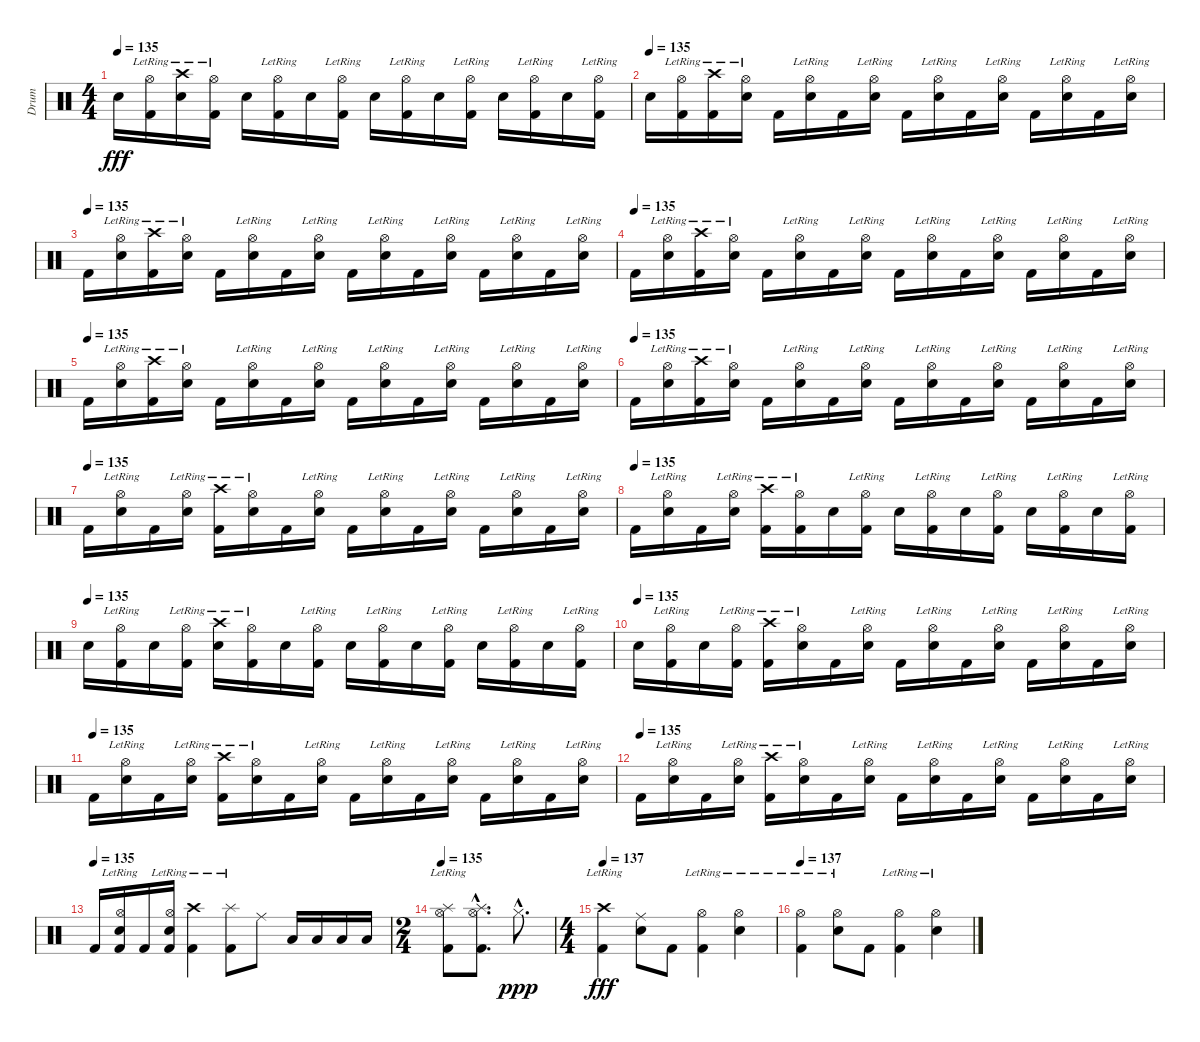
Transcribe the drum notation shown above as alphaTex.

\track ("Drum" "Drum") {instrument percussion}
\staff {score}
\articulation defaults
\ts (4 4)
\tempo 135
\clef neutral
\ks c "Electric Snare (hit)".16{dy fff}
("Hi-Hat (open)"{lr} "Kick (hit) 2").16 ("Crash high (hit)"{lr} "Electric Snare (hit)").16 ("Hi-Hat (open)"{lr} "Kick (hit) 2").16 "Electric Snare (hit)".16 ("Hi-Hat (open)"{lr} "Kick (hit) 2").16 "Electric Snare (hit)".16 ("Hi-Hat (open)"{lr} "Kick (hit) 2").16 "Electric Snare (hit)".16 ("Hi-Hat (open)"{lr} "Kick (hit) 2").16 "Electric Snare (hit)".16 ("Hi-Hat (open)"{lr} "Kick (hit) 2").16 "Electric Snare (hit)".16 ("Hi-Hat (open)"{lr} "Kick (hit) 2").16 "Electric Snare (hit)".16 ("Hi-Hat (open)"{lr} "Kick (hit) 2").16 |
\tempo (135)
"Electric Snare (hit)".16 ("Hi-Hat (open)"{lr} "Kick (hit) 2").16 ("Crash high (hit)"{lr} "Kick (hit) 2").16 ("Hi-Hat (open)"{lr} "Electric Snare (hit)").16 "Kick (hit) 2".16 ("Hi-Hat (open)"{lr} "Electric Snare (hit)").16 "Kick (hit) 2".16 ("Hi-Hat (open)"{lr} "Electric Snare (hit)").16 "Kick (hit) 2".16 ("Hi-Hat (open)"{lr} "Electric Snare (hit)").16 "Kick (hit) 2".16 ("Hi-Hat (open)"{lr} "Electric Snare (hit)").16 "Kick (hit) 2".16 ("Hi-Hat (open)"{lr} "Electric Snare (hit)").16 "Kick (hit) 2".16 ("Hi-Hat (open)"{lr} "Electric Snare (hit)").16 |
\tempo (135)
"Kick (hit) 2".16 ("Hi-Hat (open)"{lr} "Electric Snare (hit)").16 ("Crash high (hit)"{lr} "Kick (hit) 2").16 ("Hi-Hat (open)"{lr} "Electric Snare (hit)").16 "Kick (hit) 2".16 ("Hi-Hat (open)"{lr} "Electric Snare (hit)").16 "Kick (hit) 2".16 ("Hi-Hat (open)"{lr} "Electric Snare (hit)").16 "Kick (hit) 2".16 ("Hi-Hat (open)"{lr} "Electric Snare (hit)").16 "Kick (hit) 2".16 ("Hi-Hat (open)"{lr} "Electric Snare (hit)").16 "Kick (hit) 2".16 ("Hi-Hat (open)"{lr} "Electric Snare (hit)").16 "Kick (hit) 2".16 ("Hi-Hat (open)"{lr} "Electric Snare (hit)").16 |
\tempo (135)
"Kick (hit) 2".16 ("Hi-Hat (open)"{lr} "Electric Snare (hit)").16 ("Crash high (hit)"{lr} "Kick (hit) 2").16 ("Hi-Hat (open)"{lr} "Electric Snare (hit)").16 "Kick (hit) 2".16 ("Hi-Hat (open)"{lr} "Electric Snare (hit)").16 "Kick (hit) 2".16 ("Hi-Hat (open)"{lr} "Electric Snare (hit)").16 "Kick (hit) 2".16 ("Hi-Hat (open)"{lr} "Electric Snare (hit)").16 "Kick (hit) 2".16 ("Hi-Hat (open)"{lr} "Electric Snare (hit)").16 "Kick (hit) 2".16 ("Hi-Hat (open)"{lr} "Electric Snare (hit)").16 "Kick (hit) 2".16 ("Hi-Hat (open)"{lr} "Electric Snare (hit)").16 |
\tempo (135)
"Kick (hit) 2".16 ("Hi-Hat (open)"{lr} "Electric Snare (hit)").16 ("Crash high (hit)"{lr} "Kick (hit) 2").16 ("Hi-Hat (open)"{lr} "Electric Snare (hit)").16 "Kick (hit) 2".16 ("Hi-Hat (open)"{lr} "Electric Snare (hit)").16 "Kick (hit) 2".16 ("Hi-Hat (open)"{lr} "Electric Snare (hit)").16 "Kick (hit) 2".16 ("Hi-Hat (open)"{lr} "Electric Snare (hit)").16 "Kick (hit) 2".16 ("Hi-Hat (open)"{lr} "Electric Snare (hit)").16 "Kick (hit) 2".16 ("Hi-Hat (open)"{lr} "Electric Snare (hit)").16 "Kick (hit) 2".16 ("Hi-Hat (open)"{lr} "Electric Snare (hit)").16 |
\tempo (135)
"Kick (hit) 2".16 ("Hi-Hat (open)"{lr} "Electric Snare (hit)").16 ("Crash high (hit)"{lr} "Kick (hit) 2").16 ("Hi-Hat (open)"{lr} "Electric Snare (hit)").16 "Kick (hit) 2".16 ("Hi-Hat (open)"{lr} "Electric Snare (hit)").16 "Kick (hit) 2".16 ("Hi-Hat (open)"{lr} "Electric Snare (hit)").16 "Kick (hit) 2".16 ("Hi-Hat (open)"{lr} "Electric Snare (hit)").16 "Kick (hit) 2".16 ("Hi-Hat (open)"{lr} "Electric Snare (hit)").16 "Kick (hit) 2".16 ("Hi-Hat (open)"{lr} "Electric Snare (hit)").16 "Kick (hit) 2".16 ("Hi-Hat (open)"{lr} "Electric Snare (hit)").16 |
\tempo (135)
"Kick (hit) 2".16 ("Hi-Hat (open)"{lr} "Electric Snare (hit)").16 "Kick (hit) 2".16 ("Hi-Hat (open)"{lr} "Electric Snare (hit)").16 ("Crash high (hit)"{lr} "Kick (hit) 2").16 ("Hi-Hat (open)"{lr} "Electric Snare (hit)").16 "Kick (hit) 2".16 ("Hi-Hat (open)"{lr} "Electric Snare (hit)").16 "Kick (hit) 2".16 ("Hi-Hat (open)"{lr} "Electric Snare (hit)").16 "Kick (hit) 2".16 ("Hi-Hat (open)"{lr} "Electric Snare (hit)").16 "Kick (hit) 2".16 ("Hi-Hat (open)"{lr} "Electric Snare (hit)").16 "Kick (hit) 2".16 ("Hi-Hat (open)"{lr} "Electric Snare (hit)").16 |
\tempo (135)
"Kick (hit) 2".16 ("Hi-Hat (open)"{lr} "Electric Snare (hit)").16 "Kick (hit) 2".16 ("Hi-Hat (open)"{lr} "Electric Snare (hit)").16 ("Crash high (hit)"{lr} "Kick (hit) 2").16 ("Hi-Hat (open)"{lr} "Kick (hit) 2").16 "Electric Snare (hit)".16 ("Hi-Hat (open)"{lr} "Kick (hit) 2").16 "Electric Snare (hit)".16 ("Hi-Hat (open)"{lr} "Kick (hit) 2").16 "Electric Snare (hit)".16 ("Hi-Hat (open)"{lr} "Kick (hit) 2").16 "Electric Snare (hit)".16 ("Hi-Hat (open)"{lr} "Kick (hit) 2").16 "Electric Snare (hit)".16 ("Hi-Hat (open)"{lr} "Kick (hit) 2").16 |
\tempo (135)
"Electric Snare (hit)".16 ("Hi-Hat (open)"{lr} "Kick (hit) 2").16 "Electric Snare (hit)".16 ("Hi-Hat (open)"{lr} "Kick (hit) 2").16 ("Crash high (hit)"{lr} "Electric Snare (hit)").16 ("Hi-Hat (open)"{lr} "Kick (hit) 2").16 "Electric Snare (hit)".16 ("Hi-Hat (open)"{lr} "Kick (hit) 2").16 "Electric Snare (hit)".16 ("Hi-Hat (open)"{lr} "Kick (hit) 2").16 "Electric Snare (hit)".16 ("Hi-Hat (open)"{lr} "Kick (hit) 2").16 "Electric Snare (hit)".16 ("Hi-Hat (open)"{lr} "Kick (hit) 2").16 "Electric Snare (hit)".16 ("Hi-Hat (open)"{lr} "Kick (hit) 2").16 |
\tempo (135)
"Electric Snare (hit)".16 ("Hi-Hat (open)"{lr} "Kick (hit) 2").16 "Electric Snare (hit)".16 ("Hi-Hat (open)"{lr} "Kick (hit) 2").16 ("Crash high (hit)"{lr} "Kick (hit) 2").16 ("Hi-Hat (open)"{lr} "Electric Snare (hit)").16 "Kick (hit) 2".16 ("Hi-Hat (open)"{lr} "Electric Snare (hit)").16 "Kick (hit) 2".16 ("Hi-Hat (open)"{lr} "Electric Snare (hit)").16 "Kick (hit) 2".16 ("Hi-Hat (open)"{lr} "Electric Snare (hit)").16 "Kick (hit) 2".16 ("Hi-Hat (open)"{lr} "Electric Snare (hit)").16 "Kick (hit) 2".16 ("Hi-Hat (open)"{lr} "Electric Snare (hit)").16 |
\tempo (135)
"Kick (hit) 2".16 ("Hi-Hat (open)"{lr} "Electric Snare (hit)").16 "Kick (hit) 2".16 ("Hi-Hat (open)"{lr} "Electric Snare (hit)").16 ("Crash high (hit)"{lr} "Kick (hit) 2").16 ("Hi-Hat (open)"{lr} "Electric Snare (hit)").16 "Kick (hit) 2".16 ("Hi-Hat (open)"{lr} "Electric Snare (hit)").16 "Kick (hit) 2".16 ("Hi-Hat (open)"{lr} "Electric Snare (hit)").16 "Kick (hit) 2".16 ("Hi-Hat (open)"{lr} "Electric Snare (hit)").16 "Kick (hit) 2".16 ("Hi-Hat (open)"{lr} "Electric Snare (hit)").16 "Kick (hit) 2".16 ("Hi-Hat (open)"{lr} "Electric Snare (hit)").16 |
\tempo (135)
"Kick (hit) 2".16 ("Hi-Hat (open)"{lr} "Electric Snare (hit)").16 "Kick (hit) 2".16 ("Hi-Hat (open)"{lr} "Electric Snare (hit)").16 ("Crash high (hit)"{lr} "Kick (hit) 2").16 ("Hi-Hat (open)"{lr} "Electric Snare (hit)").16 "Kick (hit) 2".16 ("Hi-Hat (open)"{lr} "Electric Snare (hit)").16 "Kick (hit) 2".16 ("Hi-Hat (open)"{lr} "Electric Snare (hit)").16 "Kick (hit) 2".16 ("Hi-Hat (open)"{lr} "Electric Snare (hit)").16 "Kick (hit) 2".16 ("Hi-Hat (open)"{lr} "Electric Snare (hit)").16 "Kick (hit) 2".16 ("Hi-Hat (open)"{lr} "Electric Snare (hit)").16 |
\tempo (135)
"Kick (hit) 2".16 ("Hi-Hat (open)"{lr} "Electric Snare (hit)" "Kick (hit) 2").16 "Kick (hit) 2".16 ("Hi-Hat (open)"{lr} "Electric Snare (hit)" "Kick (hit) 2").16 ("Crash high (hit)"{lr} "Kick (hit) 2").4 ("Splash (hit)"{lr} "Kick (hit) 2").8 "Ride (middle)".8 "Low Tom (hit)".16 "Low Tom (hit)".16 "Low Tom (hit)".16 "Low Tom (hit)".16 |
\ts (2 4)
\tempo 135
("Splash (hit)" "Hi-Hat (open)"{lr} "Kick (hit) 2").8 ("Splash (hit)"{hac} "Hi-Hat (open)"{hac} "Kick (hit) 2"{hac}).8{d} "Hi-Hat (closed)"{hac}.8{d dy ppp} |
\ts (4 4)
\tempo 137
("Crash high (hit)"{lr} "Kick (hit) 2").4{dy fff} ("Ride (middle)" "Electric Snare (hit)").8 "Kick (hit) 2".8 ("Hi-Hat (open)"{lr} "Kick (hit) 2").4 ("Hi-Hat (open)"{lr} "Electric Snare (hit)").4 |
\tempo 137
("Hi-Hat (open)"{lr} "Kick (hit) 2").4 ("Hi-Hat (open)"{lr} "Electric Snare (hit)").8 "Kick (hit) 2".8 ("Hi-Hat (open)"{lr} "Kick (hit) 2").4 ("Hi-Hat (open)"{lr} "Electric Snare (hit)").4
